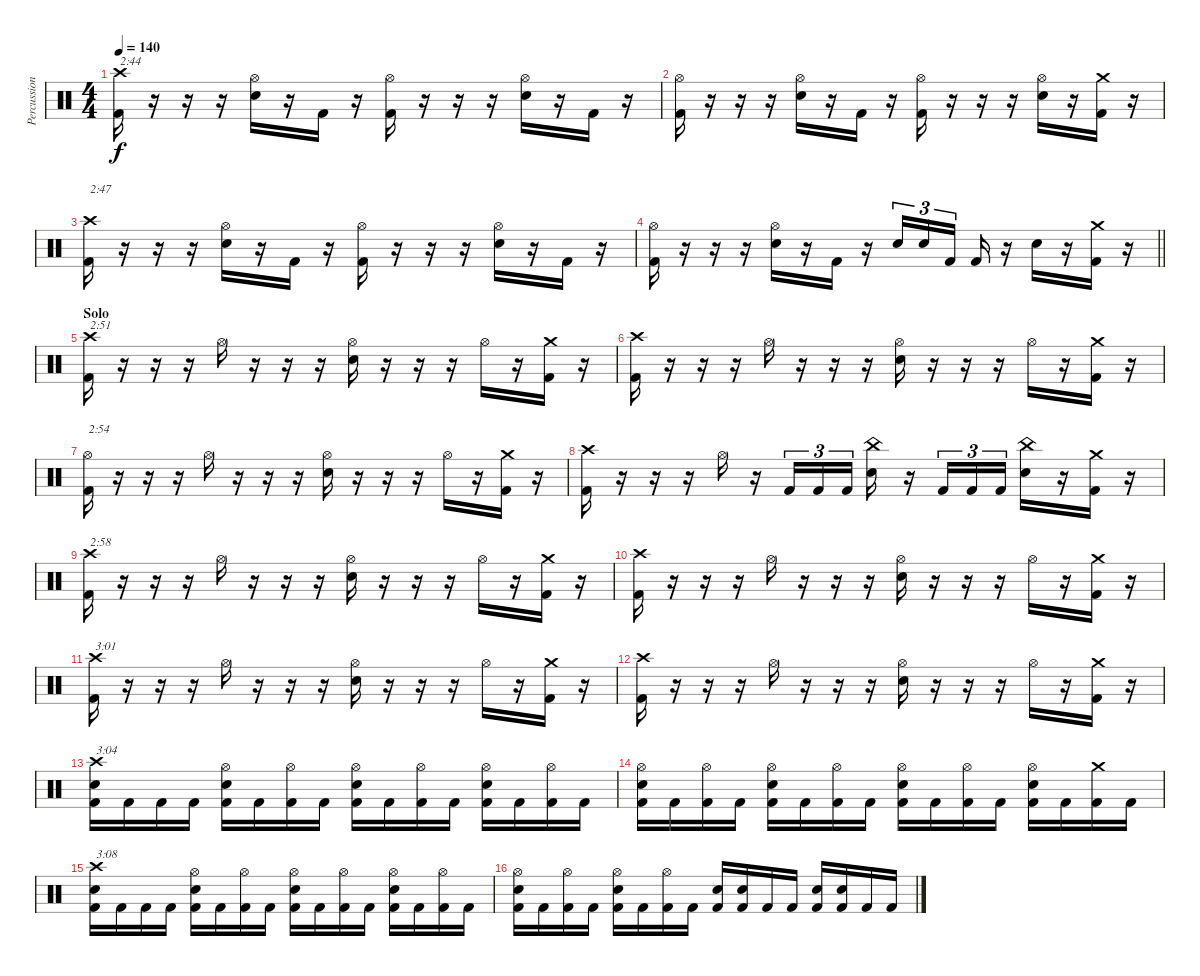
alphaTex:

\track ("Percussion" "Percussion") {instrument percussion}
\staff {score}
\articulation defaults
\ts (4 4)
\tempo 140
\clef neutral
\ks c
("Crash high (hit)" "Kick (hit) 2").16{txt "2:44" dy f} r.16 r.16 r.16 ("Hi-Hat (open)" "Electric Snare (hit)").16 r.16 "Kick (hit) 2".16 r.16 ("Hi-Hat (open)" "Kick (hit) 2").16 r.16 r.16 r.16 ("Hi-Hat (open)" "Electric Snare (hit)").16 r.16 "Kick (hit) 2".16 r.16 |
("Hi-Hat (open)" "Kick (hit) 2").16 r.16 r.16 r.16 ("Hi-Hat (open)" "Electric Snare (hit)").16 r.16 "Kick (hit) 2".16 r.16 ("Hi-Hat (open)" "Kick (hit) 2").16 r.16 r.16 r.16 ("Hi-Hat (open)" "Electric Snare (hit)").16 r.16 ("Crash medium (hit)" "Kick (hit) 2").16 r.16 |
("Crash high (hit)" "Kick (hit) 2").16{txt "2:47"} r.16 r.16 r.16 ("Hi-Hat (open)" "Electric Snare (hit)").16 r.16 "Kick (hit) 2".16 r.16 ("Hi-Hat (open)" "Kick (hit) 2").16 r.16 r.16 r.16 ("Hi-Hat (open)" "Electric Snare (hit)").16 r.16 "Kick (hit) 2".16 r.16 |
\barLineRight lightlight
("Hi-Hat (open)" "Kick (hit) 2").16 r.16 r.16 r.16 ("Hi-Hat (open)" "Electric Snare (hit)").16 r.16 "Kick (hit) 2".16 r.16 "Electric Snare (hit)".16{tu (3 2)} "Electric Snare (hit)".16{tu (3 2)} "Kick (hit) 2".16{tu (3 2)} "Kick (hit) 2".16 r.16 "Electric Snare (hit)".16 r.16 ("Crash medium (hit)" "Kick (hit) 2").16 r.16 |
\section ("" "Solo")
("Crash high (hit)" "Kick (hit) 2").16{txt "2:51"} r.16 r.16 r.16 "Hi-Hat (open)".16 r.16 r.16 r.16 ("Hi-Hat (open)" "Electric Snare (hit)").16 r.16 r.16 r.16 "Hi-Hat (open)".16 r.16 ("Crash medium (hit)" "Kick (hit) 2").16 r.16 |
("Crash high (hit)" "Kick (hit) 2").16 r.16 r.16 r.16 "Hi-Hat (open)".16 r.16 r.16 r.16 ("Hi-Hat (open)" "Electric Snare (hit)").16 r.16 r.16 r.16 "Hi-Hat (open)".16 r.16 ("Crash medium (hit)" "Kick (hit) 2").16 r.16 |
("Hi-Hat (open)" "Kick (hit) 2").16{txt "2:54"} r.16 r.16 r.16 "Hi-Hat (open)".16 r.16 r.16 r.16 ("Hi-Hat (open)" "Electric Snare (hit)").16 r.16 r.16 r.16 "Hi-Hat (open)".16 r.16 ("Crash medium (hit)" "Kick (hit) 2").16 r.16 |
("Crash high (hit)" "Kick (hit) 2").16 r.16 r.16 r.16 "Hi-Hat (open)".16 r.16 "Kick (hit) 2".16{tu (3 2)} "Kick (hit) 2".16{tu (3 2)} "Kick (hit) 2".16{tu (3 2)} ("China (hit)" "Electric Snare (hit)").16 r.16 "Kick (hit) 2".16{tu (3 2)} "Kick (hit) 2".16{tu (3 2)} "Kick (hit) 2".16{tu (3 2)} ("China (hit)" "Electric Snare (hit)").16 r.16 ("Crash medium (hit)" "Kick (hit) 2").16 r.16 |
("Crash high (hit)" "Kick (hit) 2").16{txt "2:58"} r.16 r.16 r.16 "Hi-Hat (open)".16 r.16 r.16 r.16 ("Hi-Hat (open)" "Electric Snare (hit)").16 r.16 r.16 r.16 "Hi-Hat (open)".16 r.16 ("Crash medium (hit)" "Kick (hit) 2").16 r.16 |
("Crash high (hit)" "Kick (hit) 2").16 r.16 r.16 r.16 "Hi-Hat (open)".16 r.16 r.16 r.16 ("Hi-Hat (open)" "Electric Snare (hit)").16 r.16 r.16 r.16 "Hi-Hat (open)".16 r.16 ("Crash medium (hit)" "Kick (hit) 2").16 r.16 |
("Crash high (hit)" "Kick (hit) 2").16{txt "3:01"} r.16 r.16 r.16 "Hi-Hat (open)".16 r.16 r.16 r.16 ("Hi-Hat (open)" "Electric Snare (hit)").16 r.16 r.16 r.16 "Hi-Hat (open)".16 r.16 ("Crash medium (hit)" "Kick (hit) 2").16 r.16 |
("Crash high (hit)" "Kick (hit) 2").16 r.16 r.16 r.16 "Hi-Hat (open)".16 r.16 r.16 r.16 ("Hi-Hat (open)" "Electric Snare (hit)").16 r.16 r.16 r.16 "Hi-Hat (open)".16 r.16 ("Crash medium (hit)" "Kick (hit) 2").16 r.16 |
("Crash high (hit)" "Electric Snare (hit)" "Kick (hit) 2").16{txt "3:04"} "Kick (hit) 2".16 "Kick (hit) 2".16 "Kick (hit) 2".16 ("Hi-Hat (open)" "Electric Snare (hit)" "Kick (hit) 2").16 "Kick (hit) 2".16 ("Hi-Hat (open)" "Kick (hit) 2").16 "Kick (hit) 2".16 ("Hi-Hat (open)" "Electric Snare (hit)" "Kick (hit) 2").16 "Kick (hit) 2".16 ("Hi-Hat (open)" "Kick (hit) 2").16 "Kick (hit) 2".16 ("Hi-Hat (open)" "Electric Snare (hit)" "Kick (hit) 2").16 "Kick (hit) 2".16 ("Hi-Hat (open)" "Kick (hit) 2").16 "Kick (hit) 2".16 |
("Hi-Hat (open)" "Electric Snare (hit)" "Kick (hit) 2").16 "Kick (hit) 2".16 ("Hi-Hat (open)" "Kick (hit) 2").16 "Kick (hit) 2".16 ("Hi-Hat (open)" "Electric Snare (hit)" "Kick (hit) 2").16 "Kick (hit) 2".16 ("Hi-Hat (open)" "Kick (hit) 2").16 "Kick (hit) 2".16 ("Hi-Hat (open)" "Electric Snare (hit)" "Kick (hit) 2").16 "Kick (hit) 2".16 ("Hi-Hat (open)" "Kick (hit) 2").16 "Kick (hit) 2".16 ("Hi-Hat (open)" "Electric Snare (hit)" "Kick (hit) 2").16 "Kick (hit) 2".16 ("Crash medium (hit)" "Kick (hit) 2").16 "Kick (hit) 2".16 |
("Crash high (hit)" "Electric Snare (hit)" "Kick (hit) 2").16{txt "3:08"} "Kick (hit) 2".16 "Kick (hit) 2".16 "Kick (hit) 2".16 ("Hi-Hat (open)" "Electric Snare (hit)" "Kick (hit) 2").16 "Kick (hit) 2".16 ("Hi-Hat (open)" "Kick (hit) 2").16 "Kick (hit) 2".16 ("Hi-Hat (open)" "Electric Snare (hit)" "Kick (hit) 2").16 "Kick (hit) 2".16 ("Hi-Hat (open)" "Kick (hit) 2").16 "Kick (hit) 2".16 ("Hi-Hat (open)" "Electric Snare (hit)" "Kick (hit) 2").16 "Kick (hit) 2".16 ("Hi-Hat (open)" "Kick (hit) 2").16 "Kick (hit) 2".16 |
("Hi-Hat (open)" "Electric Snare (hit)" "Kick (hit) 2").16 "Kick (hit) 2".16 ("Hi-Hat (open)" "Kick (hit) 2").16 "Kick (hit) 2".16 ("Hi-Hat (open)" "Electric Snare (hit)" "Kick (hit) 2").16 "Kick (hit) 2".16 ("Hi-Hat (open)" "Kick (hit) 2").16 "Kick (hit) 2".16 ("Electric Snare (hit)" "Kick (hit) 2").16 ("Electric Snare (hit)" "Kick (hit) 2").16 "Kick (hit) 2".16 "Kick (hit) 2".16 ("Electric Snare (hit)" "Kick (hit) 2").16 ("Electric Snare (hit)" "Kick (hit) 2").16 "Kick (hit) 2".16 "Kick (hit) 2".16
